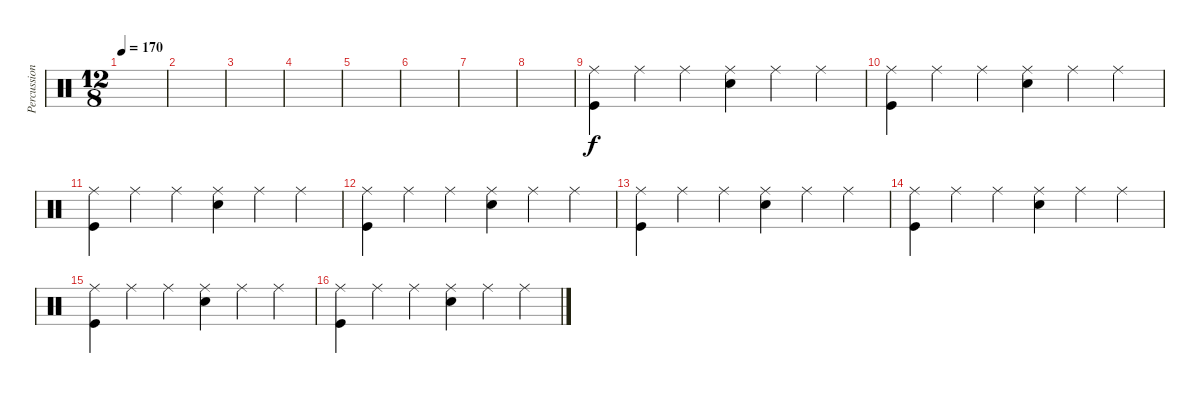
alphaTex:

\track ("Percussion" "Percussion") {instrument percussion}
\staff {score}
\articulation defaults
\ts (12 8)
\tempo 170
\clef neutral
\ks c
|
|
|
|
|
|
|
|
("Ride (middle)" "Kick (hit)").4 "Ride (middle)".4 "Ride (middle)".4 ("Ride (middle)" "Snare (hit) 2").4 "Ride (middle)".4 "Ride (middle)".4 |
("Ride (middle)" "Kick (hit)").4 "Ride (middle)".4 "Ride (middle)".4 ("Ride (middle)" "Snare (hit) 2").4 "Ride (middle)".4 "Ride (middle)".4 |
("Ride (middle)" "Kick (hit)").4 "Ride (middle)".4 "Ride (middle)".4 ("Ride (middle)" "Snare (hit) 2").4 "Ride (middle)".4 "Ride (middle)".4 |
("Ride (middle)" "Kick (hit)").4 "Ride (middle)".4 "Ride (middle)".4 ("Ride (middle)" "Snare (hit) 2").4 "Ride (middle)".4 "Ride (middle)".4 |
("Ride (middle)" "Kick (hit)").4 "Ride (middle)".4 "Ride (middle)".4 ("Ride (middle)" "Snare (hit) 2").4 "Ride (middle)".4 "Ride (middle)".4 |
("Ride (middle)" "Kick (hit)").4 "Ride (middle)".4 "Ride (middle)".4 ("Ride (middle)" "Snare (hit) 2").4 "Ride (middle)".4 "Ride (middle)".4 |
("Ride (middle)" "Kick (hit)").4 "Ride (middle)".4 "Ride (middle)".4 ("Ride (middle)" "Snare (hit) 2").4 "Ride (middle)".4 "Ride (middle)".4 |
("Ride (middle)" "Kick (hit)").4 "Ride (middle)".4 "Ride (middle)".4 ("Ride (middle)" "Snare (hit) 2").4 "Ride (middle)".4 "Ride (middle)".4
